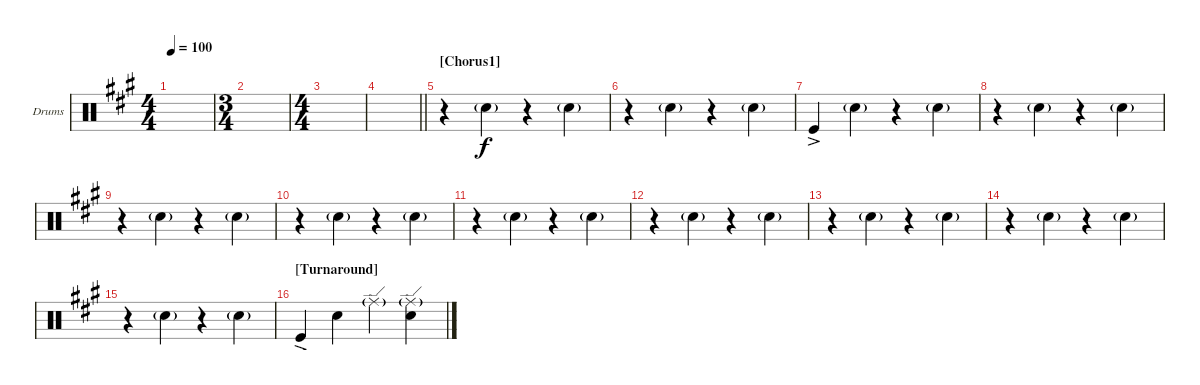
\bracketExtendMode groupsimilarinstruments
\firstSystemTrackNameOrientation horizontal
\otherSystemsTrackNameOrientation horizontal
\track ("Drumkit" "Drums") {instrument percussion}
\staff {score}
\articulation defaults
\ts (4 4)
\tempo 100
\clef neutral
\scale
0.333333
\ks f#minor
|
\ts (3 4)
\scale
0.404682 |
\ts (4 4)
\scale
0.404682 |
\scale
0.190635
\barLineRight lightlight
|
\section ("" "[Chorus1]")
\scale
0.333333 r.4 "Snare (hit) 2"{g}.4 r.4 "Snare (hit) 2"{g}.4 |
\scale
0.333333 r.4 "Snare (hit) 2"{g}.4 r.4 "Snare (hit) 2"{g}.4 |
\scale
0.333333 "Kick (hit)"{ac}.4 "Snare (hit) 2"{g}.4 r.4 "Snare (hit) 2"{g}.4 |
\scale
0.333333 r.4 "Snare (hit) 2"{g}.4 r.4 "Snare (hit) 2"{g}.4 |
\scale
0.333333 r.4 "Snare (hit) 2"{g}.4 r.4 "Snare (hit) 2"{g}.4 |
\scale
0.333333 r.4 "Snare (hit) 2"{g}.4 r.4 "Snare (hit) 2"{g}.4 |
\scale
0.333333 r.4 "Snare (hit) 2"{g}.4 r.4 "Snare (hit) 2"{g}.4 |
\scale
0.333333 r.4 "Snare (hit) 2"{g}.4 r.4 "Snare (hit) 2"{g}.4 |
\scale
0.333333 r.4 "Snare (hit) 2"{g}.4 r.4 "Snare (hit) 2"{g}.4 |
\scale
0.333333 r.4 "Snare (hit) 2"{g}.4 r.4 "Snare (hit) 2"{g}.4 |
\scale
0.333333 r.4 "Snare (hit) 2"{g}.4 r.4 "Snare (hit) 2"{g}.4 |
\section ("" "[Turnaround]")
\scale
0.333333 "Kick (hit)"{ac}.4 "Snare (hit) 2".4 "Ride (edge)"{g}.4 ("Snare (hit) 2" "Ride (edge)"{g}).4
